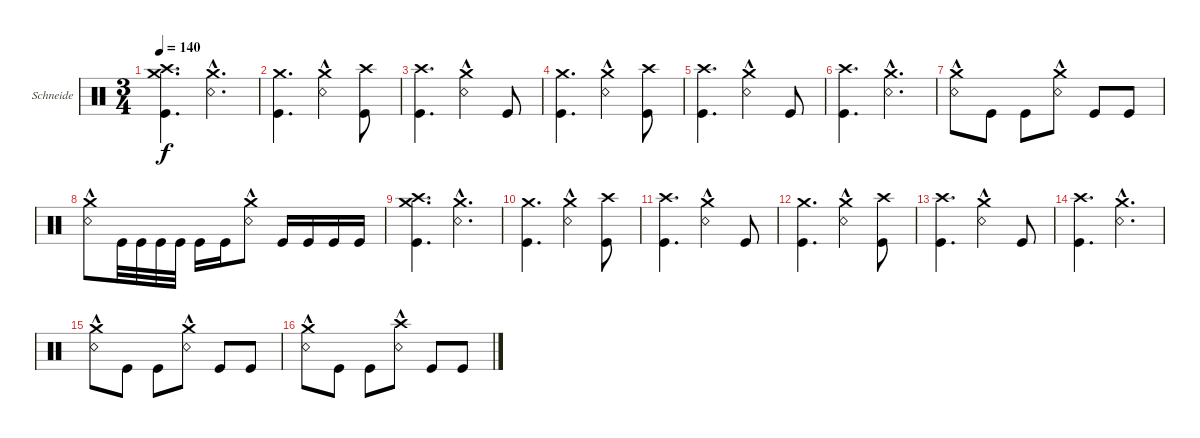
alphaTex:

\bracketExtendMode groupsimilarinstruments
\firstSystemTrackNameOrientation horizontal
\otherSystemsTrackNameOrientation horizontal
\track ("Christoph \"Doom\" Schneider" "Schneide") {instrument percussion}
\staff {score}
\articulation defaults
\ts (3 4)
\tempo 140
\clef neutral
\ks c
("Crash medium (hit)" "Kick (hit)" "Crash high (hit)").4{d dy f} ("Crash medium (hit)" "Snare (rim shot)"{hac}).4{d} |
("Crash medium (hit)" "Kick (hit)").4{d} ("Crash medium (hit)" "Snare (rim shot)"{hac}).4 ("Crash high (hit)" "Kick (hit)").8 |
("Kick (hit)" "Crash high (hit)").4{d} ("Crash medium (hit)" "Snare (rim shot)"{hac}).4 "Kick (hit)".8 |
("Crash medium (hit)" "Kick (hit)").4{d} ("Crash medium (hit)" "Snare (rim shot)"{hac}).4 ("Crash high (hit)" "Kick (hit)").8 |
("Kick (hit)" "Crash high (hit)").4{d} ("Crash medium (hit)" "Snare (rim shot)"{hac}).4 "Kick (hit)".8 |
("Kick (hit)" "Crash high (hit)").4{d} ("Crash medium (hit)" "Snare (rim shot)"{hac}).4{d} |
("Crash medium (hit)" "Snare (rim shot)"{hac}).8 "Kick (hit)".8 "Kick (hit)".8 ("Crash medium (hit)" "Snare (rim shot)"{hac}).8 "Kick (hit)".8 "Kick (hit)".8 |
("Crash medium (hit)" "Snare (rim shot)"{hac}).8 "Kick (hit)".32 "Kick (hit)".32 "Kick (hit)".32 "Kick (hit)".32 "Kick (hit)".16 "Kick (hit)".16 ("Crash medium (hit)" "Snare (rim shot)"{hac}).8 "Kick (hit)".16 "Kick (hit)".16 "Kick (hit)".16 "Kick (hit)".16 |
("Crash medium (hit)" "Kick (hit)" "Crash high (hit)").4{d} ("Crash medium (hit)" "Snare (rim shot)"{hac}).4{d} |
("Crash medium (hit)" "Kick (hit)").4{d} ("Crash medium (hit)" "Snare (rim shot)"{hac}).4 ("Crash high (hit)" "Kick (hit)").8 |
("Kick (hit)" "Crash high (hit)").4{d} ("Crash medium (hit)" "Snare (rim shot)"{hac}).4 "Kick (hit)".8 |
("Crash medium (hit)" "Kick (hit)").4{d} ("Crash medium (hit)" "Snare (rim shot)"{hac}).4 ("Crash high (hit)" "Kick (hit)").8 |
("Kick (hit)" "Crash high (hit)").4{d} ("Crash medium (hit)" "Snare (rim shot)"{hac}).4 "Kick (hit)".8 |
("Kick (hit)" "Crash high (hit)").4{d} ("Crash medium (hit)" "Snare (rim shot)"{hac}).4{d} |
("Crash medium (hit)" "Snare (rim shot)"{hac}).8 "Kick (hit)".8 "Kick (hit)".8 ("Crash medium (hit)" "Snare (rim shot)"{hac}).8 "Kick (hit)".8 "Kick (hit)".8 |
("Crash medium (hit)" "Snare (rim shot)"{hac}).8 "Kick (hit)".8 "Kick (hit)".8 ("Crash high (hit)" "Snare (rim shot)"{hac}).8 "Kick (hit)".8 "Kick (hit)".8
